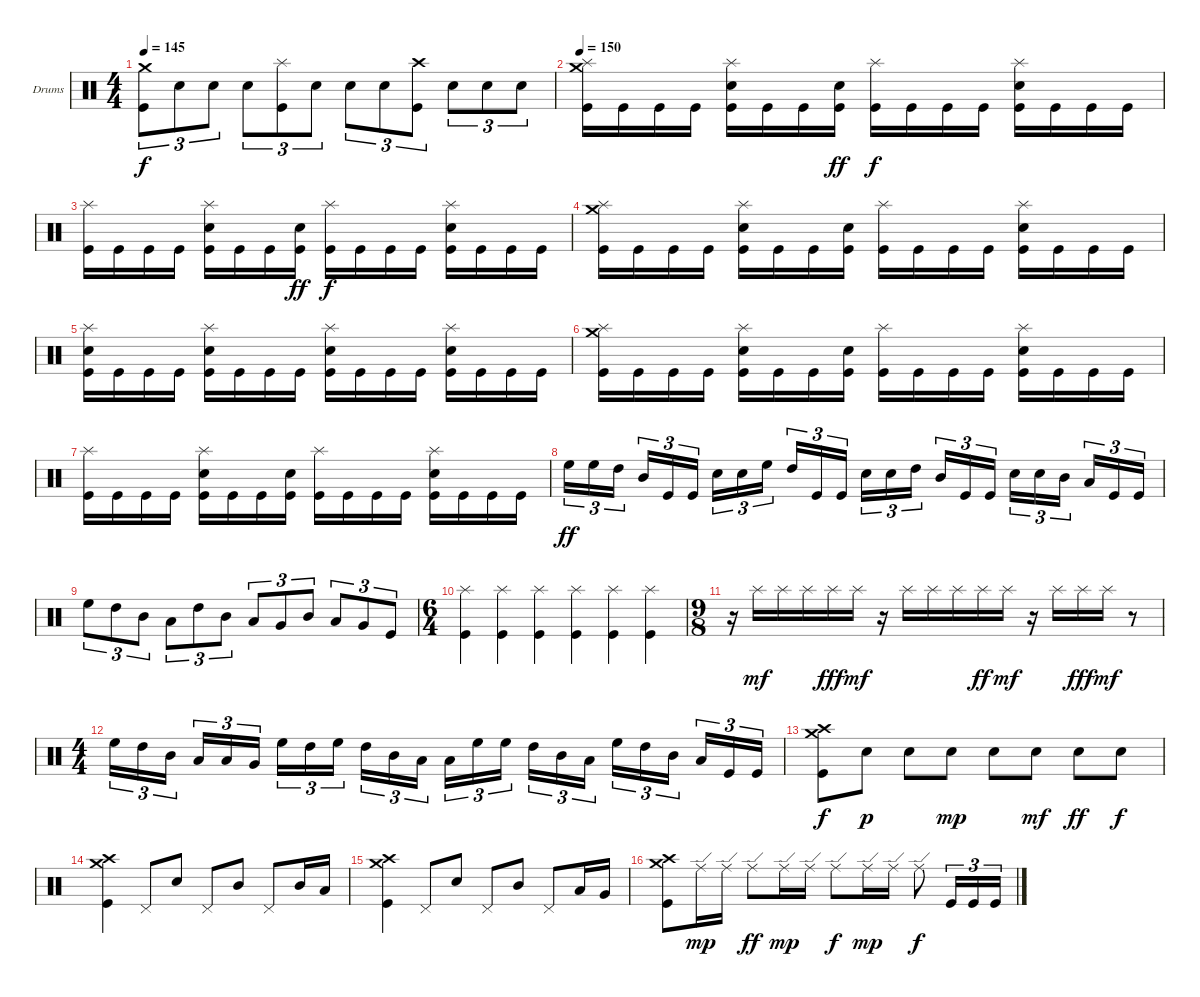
\bracketExtendMode groupsimilarinstruments
\firstSystemTrackNameOrientation horizontal
\otherSystemsTrackNameOrientation horizontal
\track ("Ударные" "Drums") {instrument percussion}
\staff {score}
\articulation defaults
\ts (4 4)
\tempo 145
\clef neutral
\ks c
("Crash medium (hit)" "Kick (hit)").8{tu (3 2) dy f} "Snare (hit) 2".8{tu (3 2)} "Snare (hit) 2".8{tu (3 2)} "Snare (hit) 2".8{tu (3 2)} ("Splash (hit)" "Kick (hit)").8{tu (3 2)} "Snare (hit) 2".8{tu (3 2)} "Snare (hit) 2".8{tu (3 2)} "Snare (hit) 2".8{tu (3 2)} ("Crash high (hit)" "Kick (hit)").8{tu (3 2)} "Snare (hit) 2".8{tu (3 2)} "Snare (hit) 2".8{tu (3 2)} "Snare (hit) 2".8{tu (3 2)} |
\tempo 150
("Crash medium (hit)" "Splash (hit)" "Kick (hit)").16 "Kick (hit)".16 "Kick (hit)".16 "Kick (hit)".16 ("Splash (hit)" "Snare (hit) 2" "Kick (hit)").16 "Kick (hit)".16 "Kick (hit)".16 ("Snare (hit) 2" "Kick (hit)").16{dy ff} ("Splash (hit)" "Kick (hit)").16{dy f} "Kick (hit)".16 "Kick (hit)".16 "Kick (hit)".16 ("Splash (hit)" "Snare (hit) 2" "Kick (hit)").16 "Kick (hit)".16 "Kick (hit)".16 "Kick (hit)".16 |
("Splash (hit)" "Kick (hit)").16 "Kick (hit)".16 "Kick (hit)".16 "Kick (hit)".16 ("Splash (hit)" "Snare (hit) 2" "Kick (hit)").16 "Kick (hit)".16 "Kick (hit)".16 ("Snare (hit) 2" "Kick (hit)").16{dy ff} ("Splash (hit)" "Kick (hit)").16{dy f} "Kick (hit)".16 "Kick (hit)".16 "Kick (hit)".16 ("Splash (hit)" "Snare (hit) 2" "Kick (hit)").16 "Kick (hit)".16 "Kick (hit)".16 "Kick (hit)".16 |
("Crash medium (hit)" "Splash (hit)" "Kick (hit)").16 "Kick (hit)".16 "Kick (hit)".16 "Kick (hit)".16 ("Splash (hit)" "Snare (hit) 2" "Kick (hit)").16 "Kick (hit)".16 "Kick (hit)".16 ("Snare (hit) 2" "Kick (hit)").16 ("Splash (hit)" "Kick (hit)").16 "Kick (hit)".16 "Kick (hit)".16 "Kick (hit)".16 ("Splash (hit)" "Snare (hit) 2" "Kick (hit)").16 "Kick (hit)".16 "Kick (hit)".16 "Kick (hit)".16 |
("Splash (hit)" "Snare (hit) 2" "Kick (hit)").16 "Kick (hit)".16 "Kick (hit)".16 "Kick (hit)".16 ("Splash (hit)" "Snare (hit) 2" "Kick (hit)").16 "Kick (hit)".16 "Kick (hit)".16 "Kick (hit)".16 ("Splash (hit)" "Snare (hit) 2" "Kick (hit)").16 "Kick (hit)".16 "Kick (hit)".16 "Kick (hit)".16 ("Splash (hit)" "Snare (hit) 2" "Kick (hit)").16 "Kick (hit)".16 "Kick (hit)".16 "Kick (hit)".16 |
("Crash medium (hit)" "Splash (hit)" "Kick (hit)").16 "Kick (hit)".16 "Kick (hit)".16 "Kick (hit)".16 ("Splash (hit)" "Snare (hit) 2" "Kick (hit)").16 "Kick (hit)".16 "Kick (hit)".16 ("Snare (hit) 2" "Kick (hit)").16 ("Splash (hit)" "Kick (hit)").16 "Kick (hit)".16 "Kick (hit)".16 "Kick (hit)".16 ("Splash (hit)" "Snare (hit) 2" "Kick (hit)").16 "Kick (hit)".16 "Kick (hit)".16 "Kick (hit)".16 |
("Splash (hit)" "Kick (hit)").16 "Kick (hit)".16 "Kick (hit)".16 "Kick (hit)".16 ("Splash (hit)" "Snare (hit) 2" "Kick (hit)").16 "Kick (hit)".16 "Kick (hit)".16 ("Snare (hit) 2" "Kick (hit)").16 ("Splash (hit)" "Kick (hit)").16 "Kick (hit)".16 "Kick (hit)".16 "Kick (hit)".16 ("Splash (hit)" "Snare (hit) 2" "Kick (hit)").16 "Kick (hit)".16 "Kick (hit)".16 "Kick (hit)".16 |
"High Floor Tom (hit)".16{tu (3 2) dy ff} "High Floor Tom (hit)".16{tu (3 2)} "High Tom (hit)".16{tu (3 2)} "Mid Tom (hit)".16{tu (3 2)} "Kick (hit)".16{tu (3 2)} "Kick (hit)".16{tu (3 2)} "Snare (hit) 2".16{tu (3 2)} "Snare (hit) 2".16{tu (3 2)} "High Floor Tom (hit)".16{tu (3 2)} "High Tom (hit)".16{tu (3 2)} "Kick (hit)".16{tu (3 2)} "Kick (hit)".16{tu (3 2)} "Snare (hit) 2".16{tu (3 2)} "Snare (hit) 2".16{tu (3 2)} "High Tom (hit)".16{tu (3 2)} "Mid Tom (hit)".16{tu (3 2)} "Kick (hit)".16{tu (3 2)} "Kick (hit)".16{tu (3 2)} "Snare (hit) 2".16{tu (3 2)} "Snare (hit) 2".16{tu (3 2)} "Mid Tom (hit)".16{tu (3 2)} "Low Tom (hit)".16{tu (3 2)} "Kick (hit)".16{tu (3 2)} "Kick (hit)".16{tu (3 2)} |
"High Floor Tom (hit)".8{tu (3 2)} "High Tom (hit)".8{tu (3 2)} "Mid Tom (hit)".8{tu (3 2)} "Low Tom (hit)".8{tu (3 2)} "High Tom (hit)".8{tu (3 2)} "Mid Tom (hit)".8{tu (3 2)} "Low Tom (hit)".8{tu (3 2)} "Very Low Tom (hit)".8{tu (3 2)} "Mid Tom (hit)".8{tu (3 2)} "Low Tom (hit)".8{tu (3 2)} "Very Low Tom (hit)".8{tu (3 2)} "Kick (hit)".8{tu (3 2)} |
\ts (6 4)
\beaming (8 6 6)
("Splash (hit)" "Kick (hit)").4 ("Splash (hit)" "Kick (hit)").4 ("Splash (hit)" "Kick (hit)").4 ("Splash (hit)" "Kick (hit)").4 ("Splash (hit)" "Kick (hit)").4 ("Splash (hit)" "Kick (hit)").4 |
\ts (9 8)
\beaming (8 3 3 3)
r.16 "Splash (hit)".16{dy mf} "Splash (hit)".16 "Splash (hit)".16 "Splash (hit)".16{dy fff} "Splash (hit)".16{dy mf} r.16 "Splash (hit)".16 "Splash (hit)".16 "Splash (hit)".16 "Splash (hit)".16{dy ff} "Splash (hit)".16{dy mf} r.16 "Splash (hit)".16 "Splash (hit)".16{dy fff} "Splash (hit)".16{dy mf} r.8 |
\ts (4 4)
\beaming (8 2 2 2 2)
"High Floor Tom (hit)".16{tu (3 2)} "High Tom (hit)".16{tu (3 2)} "Mid Tom (hit)".16{tu (3 2)} "Low Tom (hit)".16{tu (3 2)} "Low Tom (hit)".16{tu (3 2)} "Very Low Tom (hit)".16{tu (3 2)} "High Floor Tom (hit)".16{tu (3 2)} "High Tom (hit)".16{tu (3 2)} "High Floor Tom (hit)".16{tu (3 2)} "High Tom (hit)".16{tu (3 2)} "Mid Tom (hit)".16{tu (3 2)} "Low Tom (hit)".16{tu (3 2)} "Low Tom (hit)".16{tu (3 2)} "High Floor Tom (hit)".16{tu (3 2)} "High Floor Tom (hit)".16{tu (3 2)} "High Tom (hit)".16{tu (3 2)} "Mid Tom (hit)".16{tu (3 2)} "Low Tom (hit)".16{tu (3 2)} "High Floor Tom (hit)".16{tu (3 2)} "High Tom (hit)".16{tu (3 2)} "Mid Tom (hit)".16{tu (3 2)} "Low Tom (hit)".16{tu (3 2)} "Kick (hit)".16{tu (3 2)} "Kick (hit)".16{tu (3 2)} |
("Crash medium (hit)" "Crash high (hit)" "Kick (hit)").8{dy f} "Snare (hit) 2".8{dy p} "Snare (hit) 2".8 "Snare (hit) 2".8{dy mp} "Snare (hit) 2".8 "Snare (hit) 2".8{dy mf} "Snare (hit) 2".8{dy ff} "Snare (hit) 2".8{dy f} |
("Crash medium (hit)" "Crash high (hit)" "Kick (hit)").4 "Pedal Hi-Hat (hit)".8 "Snare (hit) 2".8 "Pedal Hi-Hat (hit)".8 "Mid Tom (hit)".8 "Pedal Hi-Hat (hit)".8 "Mid Tom (hit)".16 "Low Tom (hit)".16 |
("Crash medium (hit)" "Crash high (hit)" "Kick (hit)").4 "Pedal Hi-Hat (hit)".8 "Snare (hit) 2".8 "Pedal Hi-Hat (hit)".8 "Mid Tom (hit)".8 "Pedal Hi-Hat (hit)".8 "Low Tom (hit)".16 "Very Low Tom (hit)".16 |
("Crash medium (hit)" "Crash high (hit)" "Kick (hit)").8 "Ride (edge)".16{dy mp} "Ride (edge)".16 "Ride (edge)".8{dy ff} "Ride (edge)".16{dy mp} "Ride (edge)".16 "Ride (edge)".8{dy f} "Ride (edge)".16{dy mp} "Ride (edge)".16 "Ride (edge)".8{dy f} "Kick (hit)".16{tu (3 2)} "Kick (hit)".16{tu (3 2)} "Kick (hit)".16{tu (3 2)}
